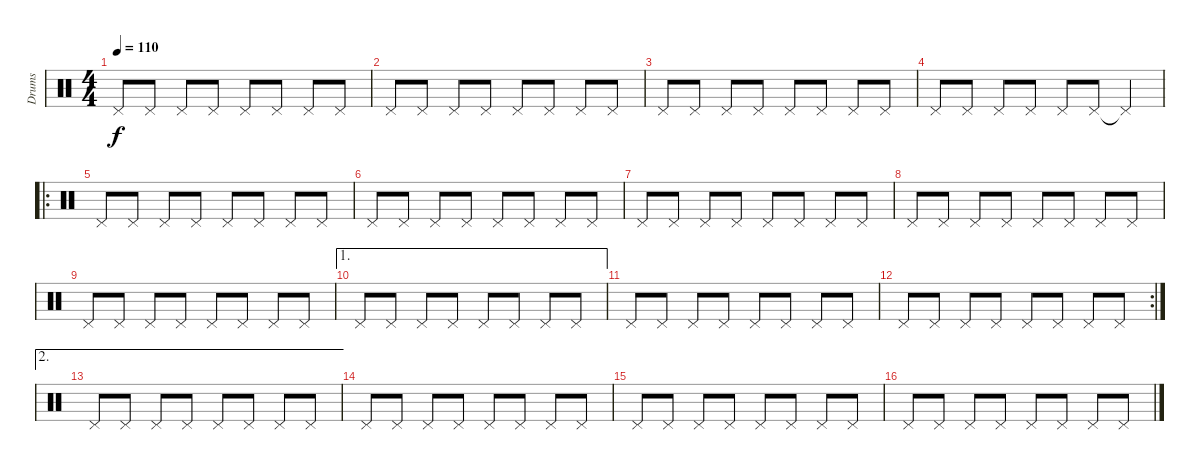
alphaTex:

\track ("Drums" "Drums") {instrument percussion}
\staff {score}
\articulation defaults
\ts (4 4)
\tempo 110
\clef neutral
\ks c "Pedal Hi-Hat (hit)".8{dy f} "Pedal Hi-Hat (hit)".8 "Pedal Hi-Hat (hit)".8 "Pedal Hi-Hat (hit)".8 "Pedal Hi-Hat (hit)".8 "Pedal Hi-Hat (hit)".8 "Pedal Hi-Hat (hit)".8 "Pedal Hi-Hat (hit)".8
|
"Pedal Hi-Hat (hit)".8 "Pedal Hi-Hat (hit)".8 "Pedal Hi-Hat (hit)".8 "Pedal Hi-Hat (hit)".8 "Pedal Hi-Hat (hit)".8 "Pedal Hi-Hat (hit)".8 "Pedal Hi-Hat (hit)".8 "Pedal Hi-Hat (hit)".8 |
"Pedal Hi-Hat (hit)".8 "Pedal Hi-Hat (hit)".8 "Pedal Hi-Hat (hit)".8 "Pedal Hi-Hat (hit)".8 "Pedal Hi-Hat (hit)".8 "Pedal Hi-Hat (hit)".8 "Pedal Hi-Hat (hit)".8 "Pedal Hi-Hat (hit)".8 |
"Pedal Hi-Hat (hit)".8 "Pedal Hi-Hat (hit)".8 "Pedal Hi-Hat (hit)".8 "Pedal Hi-Hat (hit)".8 "Pedal Hi-Hat (hit)".8 "Pedal Hi-Hat (hit)".8 "Pedal Hi-Hat (hit)"{t}.4 |
\ro "Pedal Hi-Hat (hit)".8 "Pedal Hi-Hat (hit)".8 "Pedal Hi-Hat (hit)".8 "Pedal Hi-Hat (hit)".8 "Pedal Hi-Hat (hit)".8 "Pedal Hi-Hat (hit)".8 "Pedal Hi-Hat (hit)".8 "Pedal Hi-Hat (hit)".8
|
"Pedal Hi-Hat (hit)".8 "Pedal Hi-Hat (hit)".8 "Pedal Hi-Hat (hit)".8 "Pedal Hi-Hat (hit)".8 "Pedal Hi-Hat (hit)".8 "Pedal Hi-Hat (hit)".8 "Pedal Hi-Hat (hit)".8 "Pedal Hi-Hat (hit)".8 |
"Pedal Hi-Hat (hit)".8 "Pedal Hi-Hat (hit)".8 "Pedal Hi-Hat (hit)".8 "Pedal Hi-Hat (hit)".8 "Pedal Hi-Hat (hit)".8 "Pedal Hi-Hat (hit)".8 "Pedal Hi-Hat (hit)".8 "Pedal Hi-Hat (hit)".8 |
"Pedal Hi-Hat (hit)".8 "Pedal Hi-Hat (hit)".8 "Pedal Hi-Hat (hit)".8 "Pedal Hi-Hat (hit)".8 "Pedal Hi-Hat (hit)".8 "Pedal Hi-Hat (hit)".8 "Pedal Hi-Hat (hit)".8 "Pedal Hi-Hat (hit)".8 |
"Pedal Hi-Hat (hit)".8 "Pedal Hi-Hat (hit)".8 "Pedal Hi-Hat (hit)".8 "Pedal Hi-Hat (hit)".8 "Pedal Hi-Hat (hit)".8 "Pedal Hi-Hat (hit)".8 "Pedal Hi-Hat (hit)".8 "Pedal Hi-Hat (hit)".8 |
\ae 1 "Pedal Hi-Hat (hit)".8 "Pedal Hi-Hat (hit)".8 "Pedal Hi-Hat (hit)".8 "Pedal Hi-Hat (hit)".8 "Pedal Hi-Hat (hit)".8 "Pedal Hi-Hat (hit)".8 "Pedal Hi-Hat (hit)".8 "Pedal Hi-Hat (hit)".8
|
"Pedal Hi-Hat (hit)".8 "Pedal Hi-Hat (hit)".8 "Pedal Hi-Hat (hit)".8 "Pedal Hi-Hat (hit)".8 "Pedal Hi-Hat (hit)".8 "Pedal Hi-Hat (hit)".8 "Pedal Hi-Hat (hit)".8 "Pedal Hi-Hat (hit)".8 |
\rc 2 "Pedal Hi-Hat (hit)".8 "Pedal Hi-Hat (hit)".8 "Pedal Hi-Hat (hit)".8 "Pedal Hi-Hat (hit)".8 "Pedal Hi-Hat (hit)".8 "Pedal Hi-Hat (hit)".8 "Pedal Hi-Hat (hit)".8 "Pedal Hi-Hat (hit)".8
|
\ae 2 "Pedal Hi-Hat (hit)".8 "Pedal Hi-Hat (hit)".8 "Pedal Hi-Hat (hit)".8 "Pedal Hi-Hat (hit)".8 "Pedal Hi-Hat (hit)".8 "Pedal Hi-Hat (hit)".8 "Pedal Hi-Hat (hit)".8 "Pedal Hi-Hat (hit)".8
|
"Pedal Hi-Hat (hit)".8 "Pedal Hi-Hat (hit)".8 "Pedal Hi-Hat (hit)".8 "Pedal Hi-Hat (hit)".8 "Pedal Hi-Hat (hit)".8 "Pedal Hi-Hat (hit)".8 "Pedal Hi-Hat (hit)".8 "Pedal Hi-Hat (hit)".8 |
"Pedal Hi-Hat (hit)".8 "Pedal Hi-Hat (hit)".8 "Pedal Hi-Hat (hit)".8 "Pedal Hi-Hat (hit)".8 "Pedal Hi-Hat (hit)".8 "Pedal Hi-Hat (hit)".8 "Pedal Hi-Hat (hit)".8 "Pedal Hi-Hat (hit)".8 |
"Pedal Hi-Hat (hit)".8 "Pedal Hi-Hat (hit)".8 "Pedal Hi-Hat (hit)".8 "Pedal Hi-Hat (hit)".8 "Pedal Hi-Hat (hit)".8 "Pedal Hi-Hat (hit)".8 "Pedal Hi-Hat (hit)".8 "Pedal Hi-Hat (hit)".8
